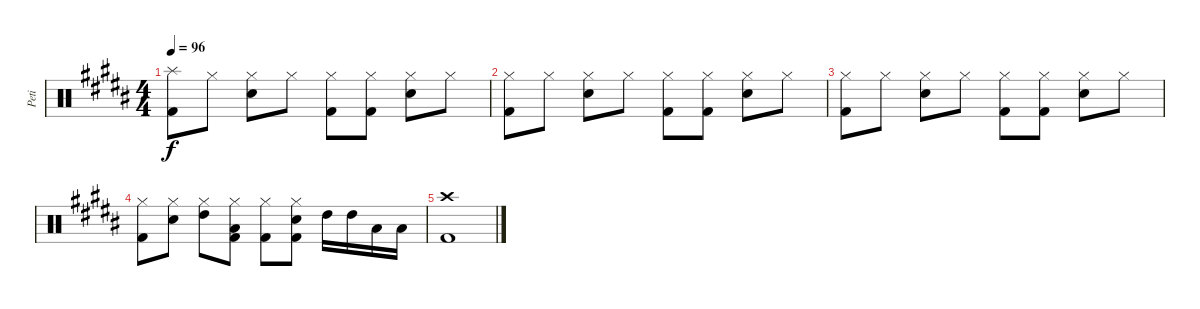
\track ("Peti" "Peti") {instrument percussion}
\staff {score}
\articulation defaults
\ts (4 4)
\tempo 96
\clef neutral
\ks g#minor
("Splash (hit)" "Kick (hit) 2").8{dy f} "Hi-Hat (closed)".8 ("Hi-Hat (closed)" "Snare (hit) 2").8 "Hi-Hat (closed)".8 ("Hi-Hat (closed)" "Kick (hit) 2").8 ("Hi-Hat (closed)" "Kick (hit) 2").8 ("Hi-Hat (closed)" "Snare (hit) 2").8 "Hi-Hat (closed)".8 |
("Hi-Hat (closed)" "Kick (hit) 2").8 "Hi-Hat (closed)".8 ("Hi-Hat (closed)" "Snare (hit) 2").8 "Hi-Hat (closed)".8 ("Hi-Hat (closed)" "Kick (hit) 2").8 ("Hi-Hat (closed)" "Kick (hit) 2").8 ("Hi-Hat (closed)" "Snare (hit) 2").8 "Hi-Hat (closed)".8 |
("Hi-Hat (closed)" "Kick (hit) 2").8 "Hi-Hat (closed)".8 ("Hi-Hat (closed)" "Snare (hit) 2").8 "Hi-Hat (closed)".8 ("Hi-Hat (closed)" "Kick (hit) 2").8 ("Hi-Hat (closed)" "Kick (hit) 2").8 ("Hi-Hat (closed)" "Snare (hit) 2").8 "Hi-Hat (closed)".8 |
("Hi-Hat (closed)" "Kick (hit) 2").8 ("Hi-Hat (closed)" "Snare (hit) 2").8 ("Hi-Hat (closed)" "High Tom (hit)").8 ("Hi-Hat (closed)" "Low Tom (hit)" "Kick (hit) 2").8 ("Hi-Hat (closed)" "Kick (hit) 2").8 ("Hi-Hat (closed)" "Snare (hit) 2" "Kick (hit) 2").8 "High Tom (hit)".16 "High Tom (hit)".16 "Low Tom (hit)".16 "Low Tom (hit)".16 |
("Crash high (hit)" "Kick (hit) 2").1
